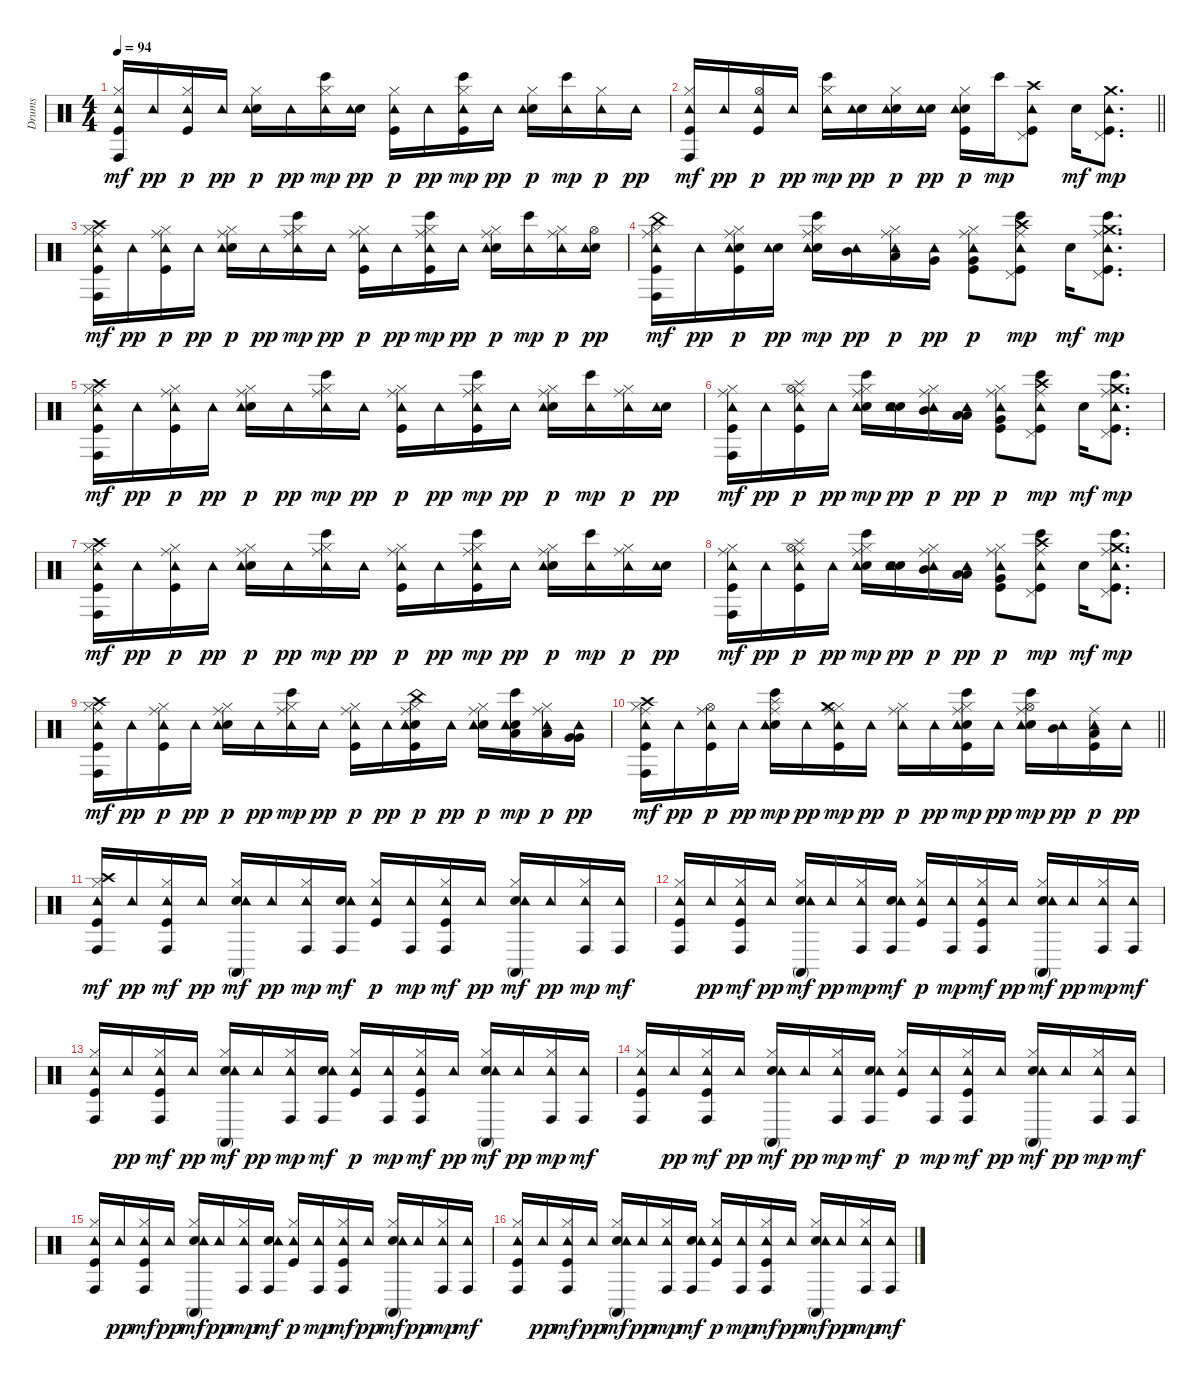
\track ("Drums" "Drums") {instrument percussion}
\staff {score}
\articulation defaults
\ts (4 4)
\tempo 94
\clef neutral
\ks c
("Kick (hit)" "Hi-Hat (closed)" "Tambourine (hit)" "Conga high (hit)").16{dy mf} "Tambourine (hit)".16{dy pp} ("Kick (hit)" "Hi-Hat (closed)" "Tambourine (hit)").16{dy p} "Tambourine (hit)".16{dy pp} ("Electric Snare (hit)" "Hi-Hat (closed)" "Tambourine (hit)").16{dy p} "Tambourine (hit)".16{dy pp} ("Hi-Hat (closed)" "Tambourine (hit)" "Bongo High (hit)").16{dy mp} ("Electric Snare (hit)" "Tambourine (hit)").16{dy pp} ("Kick (hit)" "Hi-Hat (closed)" "Tambourine (hit)").16{dy p} "Tambourine (hit)".16{dy pp} ("Kick (hit)" "Hi-Hat (closed)" "Tambourine (hit)" "Bongo High (hit)").16{dy mp} "Tambourine (hit)".16{dy pp} ("Electric Snare (hit)" "Hi-Hat (closed)" "Tambourine (hit)").16{dy p} ("Tambourine (hit)" "Bongo High (hit)").16{dy mp} ("Hi-Hat (closed)" "Tambourine (hit)").16{dy p} "Tambourine (hit)".16{dy pp} |
\barLineRight lightlight
("Kick (hit)" "Hi-Hat (closed)" "Tambourine (hit)" "Conga high (hit)").16{dy mf} "Tambourine (hit)".16{dy pp} ("Kick (hit)" "Hi-Hat (open)" "Tambourine (hit)").16{dy p} "Tambourine (hit)".16{dy pp} ("Hi-Hat (closed)" "Tambourine (hit)" "Bongo High (hit)").16{dy mp} ("Electric Snare (hit)" "Tambourine (hit)").16{dy pp} ("Electric Snare (hit)" "Hi-Hat (closed)" "Tambourine (hit)").16{dy p} ("Electric Snare (hit)" "Tambourine (hit)").16{dy pp} ("Kick (hit)" "Electric Snare (hit)" "Hi-Hat (closed)" "Tambourine (hit)").16{dy p} "Bongo High (hit)".16{dy mp} ("Kick (hit)" "Pedal Hi-Hat (hit)" "Crash high (hit)" "Tambourine (hit)").8 "Electric Snare (hit)".16{dy mf} ("Kick (hit)" "Pedal Hi-Hat (hit)" "Tambourine (hit)" "Crash medium (hit)").8{d dy mp} |
("Kick (hit)" "Hi-Hat (closed)" "Crash high (hit)" "Ride (middle)" "Tambourine (hit)" "Conga high (hit)").16{dy mf} "Tambourine (hit)".16{dy pp} ("Kick (hit)" "Hi-Hat (closed)" "Ride (middle)" "Tambourine (hit)").16{dy p} "Tambourine (hit)".16{dy pp} ("Electric Snare (hit)" "Hi-Hat (closed)" "Ride (middle)" "Tambourine (hit)").16{dy p} "Tambourine (hit)".16{dy pp} ("Hi-Hat (closed)" "Ride (middle)" "Tambourine (hit)" "Bongo High (hit)").16{dy mp} "Tambourine (hit)".16{dy pp} ("Kick (hit)" "Hi-Hat (closed)" "Ride (middle)" "Tambourine (hit)").16{dy p} "Tambourine (hit)".16{dy pp} ("Kick (hit)" "Hi-Hat (closed)" "Ride (middle)" "Tambourine (hit)" "Bongo High (hit)").16{dy mp} "Tambourine (hit)".16{dy pp} ("Electric Snare (hit)" "Hi-Hat (closed)" "Ride (middle)" "Tambourine (hit)").16{dy p} ("Tambourine (hit)" "Bongo High (hit)").16{dy mp} ("Hi-Hat (closed)" "Ride (middle)" "Tambourine (hit)").16{dy p} ("Electric Snare (hit)" "Hi-Hat (open)" "Tambourine (hit)").16{dy pp} |
("Kick (hit)" "Hi-Hat (closed)" "Ride (middle)" "China (hit)" "Tambourine (hit)" "Conga high (hit)").16{dy mf} "Tambourine (hit)".16{dy pp} ("Kick (hit)" "Electric Snare (hit)" "Hi-Hat (closed)" "Ride (middle)" "Tambourine (hit)").16{dy p} ("Electric Snare (hit)" "Tambourine (hit)").16{dy pp} ("Electric Snare (hit)" "Hi-Hat (closed)" "Ride (middle)" "Tambourine (hit)" "Bongo High (hit)").16{dy mp} ("Mid Tom (hit)" "Tambourine (hit)").16{dy pp} ("Hi-Hat (closed)" "Low Tom (hit)" "Ride (middle)" "Tambourine (hit)").16{dy p} ("Very Low Tom (hit)" "Tambourine (hit)").16{dy pp} ("Kick (hit)" "Hi-Hat (closed)" "Very Low Tom (hit)" "Ride (middle)" "Tambourine (hit)").8{dy p} ("Kick (hit)" "Pedal Hi-Hat (hit)" "Crash high (hit)" "Ride (middle)" "Tambourine (hit)" "Bongo High (hit)").8{dy mp} "Electric Snare (hit)".16{dy mf} ("Kick (hit)" "Pedal Hi-Hat (hit)" "Ride (middle)" "Tambourine (hit)" "Crash medium (hit)" "Bongo High (hit)").8{d dy mp} |
("Kick (hit)" "Hi-Hat (closed)" "Crash high (hit)" "Ride (middle)" "Tambourine (hit)" "Conga high (hit)").16{dy mf} "Tambourine (hit)".16{dy pp} ("Kick (hit)" "Hi-Hat (closed)" "Ride (middle)" "Tambourine (hit)").16{dy p} "Tambourine (hit)".16{dy pp} ("Electric Snare (hit)" "Hi-Hat (closed)" "Ride (middle)" "Tambourine (hit)").16{dy p} "Tambourine (hit)".16{dy pp} ("Hi-Hat (closed)" "Ride (middle)" "Tambourine (hit)" "Bongo High (hit)").16{dy mp} "Tambourine (hit)".16{dy pp} ("Kick (hit)" "Hi-Hat (closed)" "Ride (middle)" "Tambourine (hit)").16{dy p} "Tambourine (hit)".16{dy pp} ("Kick (hit)" "Hi-Hat (closed)" "Ride (middle)" "Tambourine (hit)" "Bongo High (hit)").16{dy mp} "Tambourine (hit)".16{dy pp} ("Electric Snare (hit)" "Hi-Hat (closed)" "Ride (middle)" "Tambourine (hit)").16{dy p} ("Tambourine (hit)" "Bongo High (hit)").16{dy mp} ("Hi-Hat (closed)" "Ride (middle)" "Tambourine (hit)").16{dy p} ("Electric Snare (hit)" "Tambourine (hit)").16{dy pp} |
("Kick (hit)" "Hi-Hat (closed)" "Ride (middle)" "Tambourine (hit)" "Conga high (hit)").16{dy mf} "Tambourine (hit)".16{dy pp} ("Kick (hit)" "Hi-Hat (open)" "Ride (middle)" "Tambourine (hit)" "Splash (hit)").16{dy p} "Tambourine (hit)".16{dy pp} ("Electric Snare (hit)" "Hi-Hat (closed)" "Ride (middle)" "Tambourine (hit)" "Bongo High (hit)").16{dy mp} ("Electric Snare (hit)" "Electric Snare (hit)" "Tambourine (hit)").16{dy pp} ("Hi-Hat (closed)" "Mid Tom (hit)" "Ride (middle)" "Tambourine (hit)").16{dy p} ("Low Tom (hit)" "Low Tom (hit)" "Tambourine (hit)").16{dy pp} ("Kick (hit)" "Hi-Hat (closed)" "Very Low Tom (hit)" "Ride (middle)" "Tambourine (hit)").8{dy p} ("Kick (hit)" "Pedal Hi-Hat (hit)" "Crash high (hit)" "Ride (middle)" "Tambourine (hit)" "Bongo High (hit)").8{dy mp} "Electric Snare (hit)".16{dy mf} ("Kick (hit)" "Pedal Hi-Hat (hit)" "Ride (middle)" "Tambourine (hit)" "Crash medium (hit)" "Bongo High (hit)").8{d dy mp} |
("Kick (hit)" "Hi-Hat (closed)" "Crash high (hit)" "Ride (middle)" "Tambourine (hit)" "Conga high (hit)").16{dy mf} "Tambourine (hit)".16{dy pp} ("Kick (hit)" "Hi-Hat (closed)" "Ride (middle)" "Tambourine (hit)").16{dy p} "Tambourine (hit)".16{dy pp} ("Electric Snare (hit)" "Hi-Hat (closed)" "Ride (middle)" "Tambourine (hit)").16{dy p} "Tambourine (hit)".16{dy pp} ("Hi-Hat (closed)" "Ride (middle)" "Tambourine (hit)" "Bongo High (hit)").16{dy mp} "Tambourine (hit)".16{dy pp} ("Kick (hit)" "Hi-Hat (closed)" "Ride (middle)" "Tambourine (hit)").16{dy p} "Tambourine (hit)".16{dy pp} ("Kick (hit)" "Hi-Hat (closed)" "Ride (middle)" "Tambourine (hit)" "Bongo High (hit)").16{dy mp} "Tambourine (hit)".16{dy pp} ("Electric Snare (hit)" "Hi-Hat (closed)" "Ride (middle)" "Tambourine (hit)").16{dy p} ("Tambourine (hit)" "Bongo High (hit)").16{dy mp} ("Hi-Hat (closed)" "Ride (middle)" "Tambourine (hit)").16{dy p} ("Electric Snare (hit)" "Tambourine (hit)").16{dy pp} |
("Kick (hit)" "Hi-Hat (closed)" "Ride (middle)" "Tambourine (hit)" "Conga high (hit)").16{dy mf} "Tambourine (hit)".16{dy pp} ("Kick (hit)" "Hi-Hat (open)" "Ride (middle)" "Tambourine (hit)" "Splash (hit)").16{dy p} "Tambourine (hit)".16{dy pp} ("Electric Snare (hit)" "Hi-Hat (closed)" "Ride (middle)" "Tambourine (hit)" "Bongo High (hit)").16{dy mp} ("Electric Snare (hit)" "Electric Snare (hit)" "Tambourine (hit)").16{dy pp} ("Hi-Hat (closed)" "Mid Tom (hit)" "Ride (middle)" "Tambourine (hit)").16{dy p} ("Low Tom (hit)" "Low Tom (hit)" "Tambourine (hit)").16{dy pp} ("Kick (hit)" "Hi-Hat (closed)" "Very Low Tom (hit)" "Ride (middle)" "Tambourine (hit)").8{dy p} ("Kick (hit)" "Pedal Hi-Hat (hit)" "Crash high (hit)" "Ride (middle)" "Tambourine (hit)" "Bongo High (hit)").8{dy mp} "Electric Snare (hit)".16{dy mf} ("Kick (hit)" "Pedal Hi-Hat (hit)" "Ride (middle)" "Tambourine (hit)" "Crash medium (hit)" "Bongo High (hit)").8{d dy mp} |
("Kick (hit)" "Hi-Hat (closed)" "Crash high (hit)" "Ride (middle)" "Tambourine (hit)" "Conga high (hit)").16{dy mf} "Tambourine (hit)".16{dy pp} ("Kick (hit)" "Hi-Hat (closed)" "Ride (middle)" "Tambourine (hit)").16{dy p} "Tambourine (hit)".16{dy pp} ("Electric Snare (hit)" "Hi-Hat (closed)" "Ride (middle)" "Tambourine (hit)").16{dy p} "Tambourine (hit)".16{dy pp} ("Hi-Hat (closed)" "Ride (middle)" "Tambourine (hit)" "Bongo High (hit)").16{dy mp} "Tambourine (hit)".16{dy pp} ("Kick (hit)" "Hi-Hat (closed)" "Ride (middle)" "Tambourine (hit)").16{dy p} "Tambourine (hit)".16{dy pp} ("Kick (hit)" "Electric Snare (hit)" "Hi-Hat (closed)" "Ride (middle)" "China (hit)" "Tambourine (hit)").16{dy p} "Tambourine (hit)".16{dy pp} ("Electric Snare (hit)" "Hi-Hat (closed)" "Ride (middle)" "Tambourine (hit)").16{dy p} ("Electric Snare (hit)" "Low Tom (hit)" "Tambourine (hit)" "Bongo High (hit)").16{dy mp} ("Hi-Hat (closed)" "Low Tom (hit)" "Ride (middle)" "Tambourine (hit)").16{dy p} ("Very Low Tom (hit)" "Very Low Tom (hit)" "Tambourine (hit)").16{dy pp} |
\barLineRight lightlight
("Kick (hit)" "Hi-Hat (closed)" "Crash high (hit)" "Ride (middle)" "Tambourine (hit)" "Conga high (hit)").16{dy mf} "Tambourine (hit)".16{dy pp} ("Kick (hit)" "Hi-Hat (open)" "Ride (middle)" "Tambourine (hit)").16{dy p} "Tambourine (hit)".16{dy pp} ("Electric Snare (hit)" "Ride (middle)" "Tambourine (hit)" "Splash (hit)" "Bongo High (hit)").16{dy mp} "Tambourine (hit)".16{dy pp} ("Kick (hit)" "Hi-Hat (closed)" "Ride (middle)" "Tambourine (hit)" "Crash medium (hit)").16{dy mp} "Tambourine (hit)".16{dy pp} ("Hi-Hat (closed)" "Ride (middle)" "Tambourine (hit)").16{dy p} "Tambourine (hit)".16{dy pp} ("Kick (hit)" "Electric Snare (hit)" "Hi-Hat (closed)" "Ride (middle)" "Tambourine (hit)" "Bongo High (hit)").16{dy mp} "Tambourine (hit)".16{dy pp} ("Electric Snare (hit)" "Hi-Hat (open)" "Ride (middle)" "Tambourine (hit)" "Bongo High (hit)").16{dy mp} ("Mid Tom (hit)" "Tambourine (hit)").16{dy pp} ("Kick (hit)" "Low Tom (hit)" "Ride (middle)" "Tambourine (hit)").16{dy p} "Tambourine (hit)".16{dy pp} |
("Kick (hit)" "Hi-Hat (closed)" "Crash high (hit)" "Tambourine (hit)" "Conga high (hit)").16{dy mf} "Tambourine (hit)".16{dy pp} ("Kick (hit)" "Hi-Hat (closed)" "Tambourine (hit)" "Conga high (hit)").16{dy mf} "Tambourine (hit)".16{dy pp} ("Electric Snare (hit)" "Hi-Hat (closed)" "Tambourine (hit)" "Conga high (mute)").16{dy mf} "Tambourine (hit)".16{dy pp} ("Hi-Hat (closed)" "Tambourine (hit)" "Conga high (hit)").16{dy mp} ("Electric Snare (hit)" "Tambourine (hit)" "Conga high (hit)").16{dy mf} ("Kick (hit)" "Hi-Hat (closed)" "Tambourine (hit)").16{dy p} ("Tambourine (hit)" "Conga high (hit)").16{dy mp} ("Kick (hit)" "Hi-Hat (closed)" "Tambourine (hit)" "Conga high (hit)").16{dy mf} "Tambourine (hit)".16{dy pp} ("Electric Snare (hit)" "Hi-Hat (closed)" "Tambourine (hit)" "Conga high (mute)").16{dy mf} "Tambourine (hit)".16{dy pp} ("Hi-Hat (closed)" "Tambourine (hit)" "Conga high (hit)").16{dy mp} ("Tambourine (hit)" "Conga high (hit)").16{dy mf} |
("Kick (hit)" "Hi-Hat (closed)" "Tambourine (hit)" "Conga high (hit)").16 "Tambourine (hit)".16{dy pp} ("Kick (hit)" "Hi-Hat (closed)" "Tambourine (hit)" "Conga high (hit)").16{dy mf} "Tambourine (hit)".16{dy pp} ("Electric Snare (hit)" "Hi-Hat (closed)" "Tambourine (hit)" "Conga high (mute)").16{dy mf} "Tambourine (hit)".16{dy pp} ("Hi-Hat (closed)" "Tambourine (hit)" "Conga high (hit)").16{dy mp} ("Electric Snare (hit)" "Tambourine (hit)" "Conga high (hit)").16{dy mf} ("Kick (hit)" "Hi-Hat (closed)" "Tambourine (hit)").16{dy p} ("Tambourine (hit)" "Conga high (hit)").16{dy mp} ("Kick (hit)" "Hi-Hat (closed)" "Tambourine (hit)" "Conga high (hit)").16{dy mf} "Tambourine (hit)".16{dy pp} ("Electric Snare (hit)" "Hi-Hat (closed)" "Tambourine (hit)" "Conga high (mute)").16{dy mf} "Tambourine (hit)".16{dy pp} ("Hi-Hat (closed)" "Tambourine (hit)" "Conga high (hit)").16{dy mp} ("Tambourine (hit)" "Conga high (hit)").16{dy mf} |
("Kick (hit)" "Hi-Hat (closed)" "Tambourine (hit)" "Conga high (hit)").16 "Tambourine (hit)".16{dy pp} ("Kick (hit)" "Hi-Hat (closed)" "Tambourine (hit)" "Conga high (hit)").16{dy mf} "Tambourine (hit)".16{dy pp} ("Electric Snare (hit)" "Hi-Hat (closed)" "Tambourine (hit)" "Conga high (mute)").16{dy mf} "Tambourine (hit)".16{dy pp} ("Hi-Hat (closed)" "Tambourine (hit)" "Conga high (hit)").16{dy mp} ("Electric Snare (hit)" "Tambourine (hit)" "Conga high (hit)").16{dy mf} ("Kick (hit)" "Hi-Hat (closed)" "Tambourine (hit)").16{dy p} ("Tambourine (hit)" "Conga high (hit)").16{dy mp} ("Kick (hit)" "Hi-Hat (closed)" "Tambourine (hit)" "Conga high (hit)").16{dy mf} "Tambourine (hit)".16{dy pp} ("Electric Snare (hit)" "Hi-Hat (closed)" "Tambourine (hit)" "Conga high (mute)").16{dy mf} "Tambourine (hit)".16{dy pp} ("Hi-Hat (closed)" "Tambourine (hit)" "Conga high (hit)").16{dy mp} ("Tambourine (hit)" "Conga high (hit)").16{dy mf} |
("Kick (hit)" "Hi-Hat (closed)" "Tambourine (hit)" "Conga high (hit)").16 "Tambourine (hit)".16{dy pp} ("Kick (hit)" "Hi-Hat (closed)" "Tambourine (hit)" "Conga high (hit)").16{dy mf} "Tambourine (hit)".16{dy pp} ("Electric Snare (hit)" "Hi-Hat (closed)" "Tambourine (hit)" "Conga high (mute)").16{dy mf} "Tambourine (hit)".16{dy pp} ("Hi-Hat (closed)" "Tambourine (hit)" "Conga high (hit)").16{dy mp} ("Electric Snare (hit)" "Tambourine (hit)" "Conga high (hit)").16{dy mf} ("Kick (hit)" "Hi-Hat (closed)" "Tambourine (hit)").16{dy p} ("Tambourine (hit)" "Conga high (hit)").16{dy mp} ("Kick (hit)" "Hi-Hat (closed)" "Tambourine (hit)" "Conga high (hit)").16{dy mf} "Tambourine (hit)".16{dy pp} ("Electric Snare (hit)" "Hi-Hat (closed)" "Tambourine (hit)" "Conga high (mute)").16{dy mf} "Tambourine (hit)".16{dy pp} ("Hi-Hat (closed)" "Tambourine (hit)" "Conga high (hit)").16{dy mp} ("Tambourine (hit)" "Conga high (hit)").16{dy mf} |
("Kick (hit)" "Hi-Hat (closed)" "Tambourine (hit)" "Conga high (hit)").16 "Tambourine (hit)".16{dy pp} ("Kick (hit)" "Hi-Hat (closed)" "Tambourine (hit)" "Conga high (hit)").16{dy mf} "Tambourine (hit)".16{dy pp} ("Electric Snare (hit)" "Hi-Hat (closed)" "Tambourine (hit)" "Conga high (mute)").16{dy mf} "Tambourine (hit)".16{dy pp} ("Hi-Hat (closed)" "Tambourine (hit)" "Conga high (hit)").16{dy mp} ("Electric Snare (hit)" "Tambourine (hit)" "Conga high (hit)").16{dy mf} ("Kick (hit)" "Hi-Hat (closed)" "Tambourine (hit)").16{dy p} ("Tambourine (hit)" "Conga high (hit)").16{dy mp} ("Kick (hit)" "Hi-Hat (closed)" "Tambourine (hit)" "Conga high (hit)").16{dy mf} "Tambourine (hit)".16{dy pp} ("Electric Snare (hit)" "Hi-Hat (closed)" "Tambourine (hit)" "Conga high (mute)").16{dy mf} "Tambourine (hit)".16{dy pp} ("Hi-Hat (closed)" "Tambourine (hit)" "Conga high (hit)").16{dy mp} ("Tambourine (hit)" "Conga high (hit)").16{dy mf} |
("Kick (hit)" "Hi-Hat (closed)" "Tambourine (hit)" "Conga high (hit)").16 "Tambourine (hit)".16{dy pp} ("Kick (hit)" "Hi-Hat (closed)" "Tambourine (hit)" "Conga high (hit)").16{dy mf} "Tambourine (hit)".16{dy pp} ("Electric Snare (hit)" "Hi-Hat (closed)" "Tambourine (hit)" "Conga high (mute)").16{dy mf} "Tambourine (hit)".16{dy pp} ("Hi-Hat (closed)" "Tambourine (hit)" "Conga high (hit)").16{dy mp} ("Electric Snare (hit)" "Tambourine (hit)" "Conga high (hit)").16{dy mf} ("Kick (hit)" "Hi-Hat (closed)" "Tambourine (hit)").16{dy p} ("Tambourine (hit)" "Conga high (hit)").16{dy mp} ("Kick (hit)" "Hi-Hat (closed)" "Tambourine (hit)" "Conga high (hit)").16{dy mf} "Tambourine (hit)".16{dy pp} ("Electric Snare (hit)" "Hi-Hat (closed)" "Tambourine (hit)" "Conga high (mute)").16{dy mf} "Tambourine (hit)".16{dy pp} ("Hi-Hat (closed)" "Tambourine (hit)" "Conga high (hit)").16{dy mp} ("Tambourine (hit)" "Conga high (hit)").16{dy mf}
